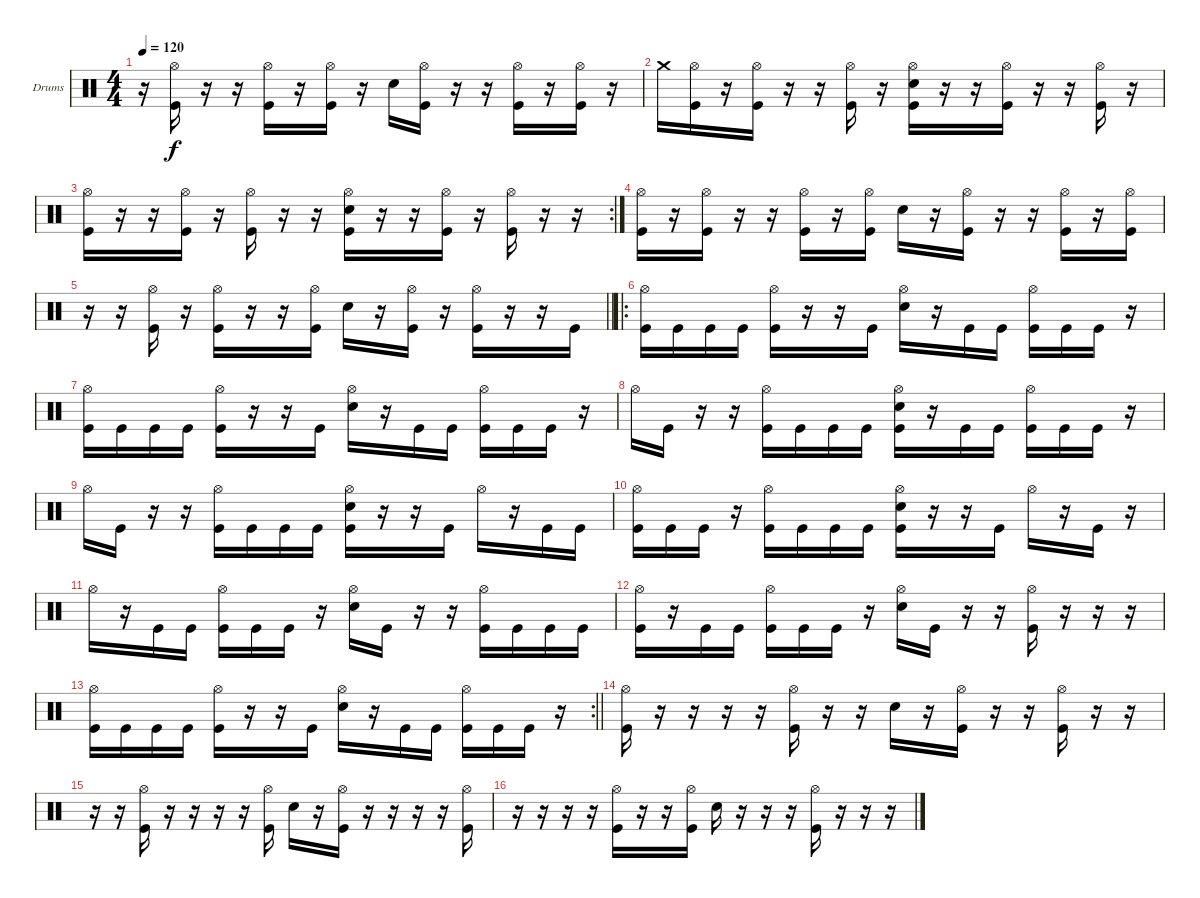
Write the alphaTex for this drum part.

\bracketExtendMode groupsimilarinstruments
\firstSystemTrackNameOrientation horizontal
\otherSystemsTrackNameOrientation horizontal
\track ("Drumkit" "Drums") {instrument percussion}
\staff {score}
\articulation defaults
\ts (4 4)
\tempo 120
\clef neutral
\ks c
r.16{dy f} ("Hi-Hat (open)" "Kick (hit)").16 r.16 r.16 ("Hi-Hat (open)" "Kick (hit)").16 r.16 ("Hi-Hat (open)" "Kick (hit)").16 r.16 "Snare (hit) 2".16 ("Hi-Hat (open)" "Kick (hit)").16 r.16 r.16 ("Hi-Hat (open)" "Kick (hit)").16 r.16 ("Hi-Hat (open)" "Kick (hit)").16 r.16 |
"Crash medium (hit)".16 ("Hi-Hat (open)" "Kick (hit)").16 r.16 ("Hi-Hat (open)" "Kick (hit)").16 r.16 r.16 ("Hi-Hat (open)" "Kick (hit)").16 r.16 ("Hi-Hat (open)" "Snare (hit) 2" "Kick (hit)").16 r.16 r.16 ("Hi-Hat (open)" "Kick (hit)").16 r.16 r.16 ("Hi-Hat (open)" "Kick (hit)").16 r.16 |
\rc 2
("Hi-Hat (open)" "Kick (hit)").16 r.16 r.16 ("Hi-Hat (open)" "Kick (hit)").16 r.16 ("Hi-Hat (open)" "Kick (hit)").16 r.16 r.16 ("Hi-Hat (open)" "Snare (hit) 2" "Kick (hit)").16 r.16 r.16 ("Hi-Hat (open)" "Kick (hit)").16 r.16 ("Hi-Hat (open)" "Kick (hit)").16 r.16 r.16 |
("Hi-Hat (open)" "Kick (hit)").16 r.16 ("Hi-Hat (open)" "Kick (hit)").16 r.16 r.16 ("Hi-Hat (open)" "Kick (hit)").16 r.16 ("Hi-Hat (open)" "Kick (hit)").16 "Snare (hit) 2".16 r.16 ("Hi-Hat (open)" "Kick (hit)").16 r.16 r.16 ("Hi-Hat (open)" "Kick (hit)").16 r.16 ("Hi-Hat (open)" "Kick (hit)").16 |
\barLineRight lightlight
r.16 r.16 ("Hi-Hat (open)" "Kick (hit)").16 r.16 ("Hi-Hat (open)" "Kick (hit)").16 r.16 r.16 ("Hi-Hat (open)" "Kick (hit)").16 "Snare (hit) 2".16 r.16 ("Hi-Hat (open)" "Kick (hit)").16 r.16 ("Hi-Hat (open)" "Kick (hit)").16 r.16 r.16 "Kick (hit)".16 |
\ro
("Hi-Hat (open)" "Kick (hit)").16 "Kick (hit)".16 "Kick (hit)".16 "Kick (hit)".16 ("Hi-Hat (open)" "Kick (hit)").16 r.16 r.16 "Kick (hit)".16 ("Hi-Hat (open)" "Snare (hit) 2").16 r.16 "Kick (hit)".16 "Kick (hit)".16 ("Hi-Hat (open)" "Kick (hit)").16 "Kick (hit)".16 "Kick (hit)".16 r.16 |
("Hi-Hat (open)" "Kick (hit)").16 "Kick (hit)".16 "Kick (hit)".16 "Kick (hit)".16 ("Hi-Hat (open)" "Kick (hit)").16 r.16 r.16 "Kick (hit)".16 ("Hi-Hat (open)" "Snare (hit) 2").16 r.16 "Kick (hit)".16 "Kick (hit)".16 ("Hi-Hat (open)" "Kick (hit)").16 "Kick (hit)".16 "Kick (hit)".16 r.16 |
"Hi-Hat (open)".16 "Kick (hit)".16 r.16 r.16 ("Hi-Hat (open)" "Kick (hit)").16 "Kick (hit)".16 "Kick (hit)".16 "Kick (hit)".16 ("Hi-Hat (open)" "Snare (hit) 2" "Kick (hit)").16 r.16 "Kick (hit)".16 "Kick (hit)".16 ("Hi-Hat (open)" "Kick (hit)").16 "Kick (hit)".16 "Kick (hit)".16 r.16 |
"Hi-Hat (open)".16 "Kick (hit)".16 r.16 r.16 ("Hi-Hat (open)" "Kick (hit)").16 "Kick (hit)".16 "Kick (hit)".16 "Kick (hit)".16 ("Hi-Hat (open)" "Snare (hit) 2" "Kick (hit)").16 r.16 r.16 "Kick (hit)".16 "Hi-Hat (open)".16 r.16 "Kick (hit)".16 "Kick (hit)".16 |
("Hi-Hat (open)" "Kick (hit)").16 "Kick (hit)".16 "Kick (hit)".16 r.16 ("Hi-Hat (open)" "Kick (hit)").16 "Kick (hit)".16 "Kick (hit)".16 "Kick (hit)".16 ("Hi-Hat (open)" "Snare (hit) 2" "Kick (hit)").16 r.16 r.16 "Kick (hit)".16 "Hi-Hat (open)".16 r.16 "Kick (hit)".16 r.16 |
"Hi-Hat (open)".16 r.16 "Kick (hit)".16 "Kick (hit)".16 ("Hi-Hat (open)" "Kick (hit)").16 "Kick (hit)".16 "Kick (hit)".16 r.16 ("Hi-Hat (open)" "Snare (hit) 2").16 "Kick (hit)".16 r.16 r.16 ("Hi-Hat (open)" "Kick (hit)").16 "Kick (hit)".16 "Kick (hit)".16 "Kick (hit)".16 |
("Hi-Hat (open)" "Kick (hit)").16 r.16 "Kick (hit)".16 "Kick (hit)".16 ("Hi-Hat (open)" "Kick (hit)").16 "Kick (hit)".16 "Kick (hit)".16 r.16 ("Hi-Hat (open)" "Snare (hit) 2").16 "Kick (hit)".16 r.16 r.16 ("Hi-Hat (open)" "Kick (hit)").16 r.16 r.16 r.16 |
\rc 2
\barLineRight lightlight
("Hi-Hat (open)" "Kick (hit)").16 "Kick (hit)".16 "Kick (hit)".16 "Kick (hit)".16 ("Hi-Hat (open)" "Kick (hit)").16 r.16 r.16 "Kick (hit)".16 ("Hi-Hat (open)" "Snare (hit) 2").16 r.16 "Kick (hit)".16 "Kick (hit)".16 ("Hi-Hat (open)" "Kick (hit)").16 "Kick (hit)".16 "Kick (hit)".16 r.16 |
("Hi-Hat (open)" "Kick (hit)").16 r.16 r.16 r.16 r.16 ("Hi-Hat (open)" "Kick (hit)").16 r.16 r.16 "Snare (hit) 2".16 r.16 ("Hi-Hat (open)" "Kick (hit)").16 r.16 r.16 ("Hi-Hat (open)" "Kick (hit)").16 r.16 r.16 |
r.16 r.16 ("Hi-Hat (open)" "Kick (hit)").16 r.16 r.16 r.16 r.16 ("Hi-Hat (open)" "Kick (hit)").16 "Snare (hit) 2".16 r.16 ("Hi-Hat (open)" "Kick (hit)").16 r.16 r.16 r.16 r.16 ("Hi-Hat (open)" "Kick (hit)").16 |
r.16 r.16 r.16 r.16 ("Hi-Hat (open)" "Kick (hit)").16 r.16 r.16 ("Hi-Hat (open)" "Kick (hit)").16 "Snare (hit) 2".16 r.16 r.16 r.16 ("Hi-Hat (open)" "Kick (hit)").16 r.16 r.16 r.16
